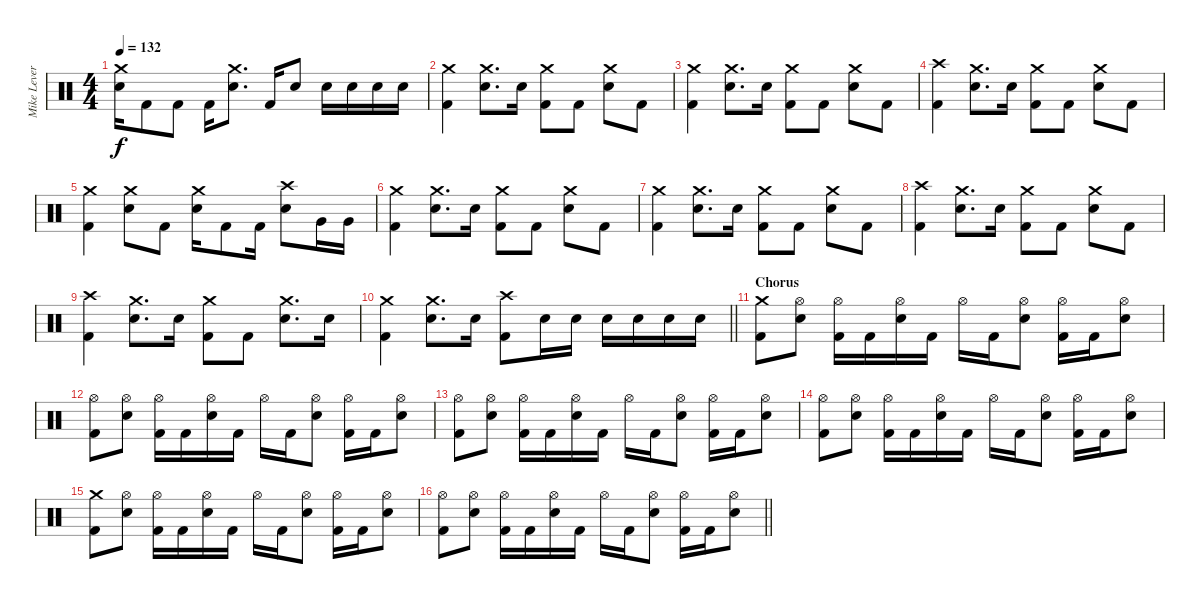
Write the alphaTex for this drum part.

\track ("Mike Leverence - Drums" "Mike Lever") {instrument percussion}
\staff {score}
\articulation defaults
\ts (4 4)
\tempo 132
\clef neutral
\ks c
("Crash medium (hit)" "Electric Snare (hit)").16{dy f} "Kick (hit) 2".8 "Kick (hit) 2".8 "Kick (hit) 2".16 ("Crash medium (hit)" "Electric Snare (hit)").8{d} "Kick (hit) 2".16 "Electric Snare (hit)".8 "Electric Snare (hit)".16 "Electric Snare (hit)".16 "Electric Snare (hit)".16 "Electric Snare (hit)".16 |
("Crash medium (hit)" "Kick (hit) 2").4 ("Crash medium (hit)" "Electric Snare (hit)").8{d} "Electric Snare (hit)".16 ("Crash medium (hit)" "Kick (hit) 2").8 "Kick (hit) 2".8 ("Crash medium (hit)" "Electric Snare (hit)").8 "Kick (hit) 2".8 |
("Crash medium (hit)" "Kick (hit) 2").4 ("Crash medium (hit)" "Electric Snare (hit)").8{d} "Electric Snare (hit)".16 ("Crash medium (hit)" "Kick (hit) 2").8 "Kick (hit) 2".8 ("Crash medium (hit)" "Electric Snare (hit)").8 "Kick (hit) 2".8 |
("Crash high (hit)" "Kick (hit) 2").4 ("Crash medium (hit)" "Electric Snare (hit)").8{d} "Electric Snare (hit)".16 ("Crash medium (hit)" "Kick (hit) 2").8 "Kick (hit) 2".8 ("Crash medium (hit)" "Electric Snare (hit)").8 "Kick (hit) 2".8 |
("Crash medium (hit)" "Kick (hit) 2").4 ("Crash medium (hit)" "Electric Snare (hit)").8 "Kick (hit) 2".8 ("Crash medium (hit)" "Electric Snare (hit)").16 "Kick (hit) 2".8 "Kick (hit) 2".16 ("Crash high (hit)" "Electric Snare (hit)").8 "Very Low Tom (hit)".16 "Very Low Tom (hit)".16 |
("Crash medium (hit)" "Kick (hit) 2").4 ("Crash medium (hit)" "Electric Snare (hit)").8{d} "Electric Snare (hit)".16 ("Crash medium (hit)" "Kick (hit) 2").8 "Kick (hit) 2".8 ("Crash medium (hit)" "Electric Snare (hit)").8 "Kick (hit) 2".8 |
("Crash medium (hit)" "Kick (hit) 2").4 ("Crash medium (hit)" "Electric Snare (hit)").8{d} "Electric Snare (hit)".16 ("Crash medium (hit)" "Kick (hit) 2").8 "Kick (hit) 2".8 ("Crash medium (hit)" "Electric Snare (hit)").8 "Kick (hit) 2".8 |
("Crash high (hit)" "Kick (hit) 2").4 ("Crash medium (hit)" "Electric Snare (hit)").8{d} "Electric Snare (hit)".16 ("Crash medium (hit)" "Kick (hit) 2").8 "Kick (hit) 2".8 ("Crash medium (hit)" "Electric Snare (hit)").8 "Kick (hit) 2".8 |
("Crash high (hit)" "Kick (hit) 2").4 ("Crash medium (hit)" "Electric Snare (hit)").8{d} "Electric Snare (hit)".16 ("Crash medium (hit)" "Kick (hit) 2").8 "Kick (hit) 2".8 ("Crash medium (hit)" "Electric Snare (hit)").8{d} "Electric Snare (hit)".16 |
\barLineRight lightlight
("Crash medium (hit)" "Kick (hit) 2").4 ("Crash medium (hit)" "Electric Snare (hit)").8{d} "Electric Snare (hit)".16 ("Crash high (hit)" "Kick (hit) 2").8 "Electric Snare (hit)".16 "Electric Snare (hit)".16 "Electric Snare (hit)".16 "Electric Snare (hit)".16 "Electric Snare (hit)".16 "Electric Snare (hit)".16 |
\section ("" "Chorus")
("Crash medium (hit)" "Kick (hit) 2").8 ("Hi-Hat (open)" "Electric Snare (hit)").8 ("Hi-Hat (open)" "Kick (hit) 2").16 "Kick (hit) 2".16 ("Hi-Hat (open)" "Electric Snare (hit)").16 "Kick (hit) 2".16 "Hi-Hat (open)".16 "Kick (hit) 2".16 ("Hi-Hat (open)" "Electric Snare (hit)").8 ("Hi-Hat (open)" "Kick (hit) 2").16 "Kick (hit) 2".16 ("Hi-Hat (open)" "Electric Snare (hit)").8 |
("Hi-Hat (open)" "Kick (hit) 2").8 ("Hi-Hat (open)" "Electric Snare (hit)").8 ("Hi-Hat (open)" "Kick (hit) 2").16 "Kick (hit) 2".16 ("Hi-Hat (open)" "Electric Snare (hit)").16 "Kick (hit) 2".16 "Hi-Hat (open)".16 "Kick (hit) 2".16 ("Hi-Hat (open)" "Electric Snare (hit)").8 ("Hi-Hat (open)" "Kick (hit) 2").16 "Kick (hit) 2".16 ("Hi-Hat (open)" "Electric Snare (hit)").8 |
("Hi-Hat (open)" "Kick (hit) 2").8 ("Hi-Hat (open)" "Electric Snare (hit)").8 ("Hi-Hat (open)" "Kick (hit) 2").16 "Kick (hit) 2".16 ("Hi-Hat (open)" "Electric Snare (hit)").16 "Kick (hit) 2".16 "Hi-Hat (open)".16 "Kick (hit) 2".16 ("Hi-Hat (open)" "Electric Snare (hit)").8 ("Hi-Hat (open)" "Kick (hit) 2").16 "Kick (hit) 2".16 ("Hi-Hat (open)" "Electric Snare (hit)").8 |
("Hi-Hat (open)" "Kick (hit) 2").8 ("Hi-Hat (open)" "Electric Snare (hit)").8 ("Hi-Hat (open)" "Kick (hit) 2").16 "Kick (hit) 2".16 ("Hi-Hat (open)" "Electric Snare (hit)").16 "Kick (hit) 2".16 "Hi-Hat (open)".16 "Kick (hit) 2".16 ("Hi-Hat (open)" "Electric Snare (hit)").8 ("Hi-Hat (open)" "Kick (hit) 2").16 "Kick (hit) 2".16 ("Hi-Hat (open)" "Electric Snare (hit)").8 |
("Crash medium (hit)" "Kick (hit) 2").8 ("Hi-Hat (open)" "Electric Snare (hit)").8 ("Hi-Hat (open)" "Kick (hit) 2").16 "Kick (hit) 2".16 ("Hi-Hat (open)" "Electric Snare (hit)").16 "Kick (hit) 2".16 "Hi-Hat (open)".16 "Kick (hit) 2".16 ("Hi-Hat (open)" "Electric Snare (hit)").8 ("Hi-Hat (open)" "Kick (hit) 2").16 "Kick (hit) 2".16 ("Hi-Hat (open)" "Electric Snare (hit)").8 |
\barLineRight lightlight
("Hi-Hat (open)" "Kick (hit) 2").8 ("Hi-Hat (open)" "Electric Snare (hit)").8 ("Hi-Hat (open)" "Kick (hit) 2").16 "Kick (hit) 2".16 ("Hi-Hat (open)" "Electric Snare (hit)").16 "Kick (hit) 2".16 "Hi-Hat (open)".16 "Kick (hit) 2".16 ("Hi-Hat (open)" "Electric Snare (hit)").8 ("Hi-Hat (open)" "Kick (hit) 2").16 "Kick (hit) 2".16 ("Hi-Hat (open)" "Electric Snare (hit)").8
